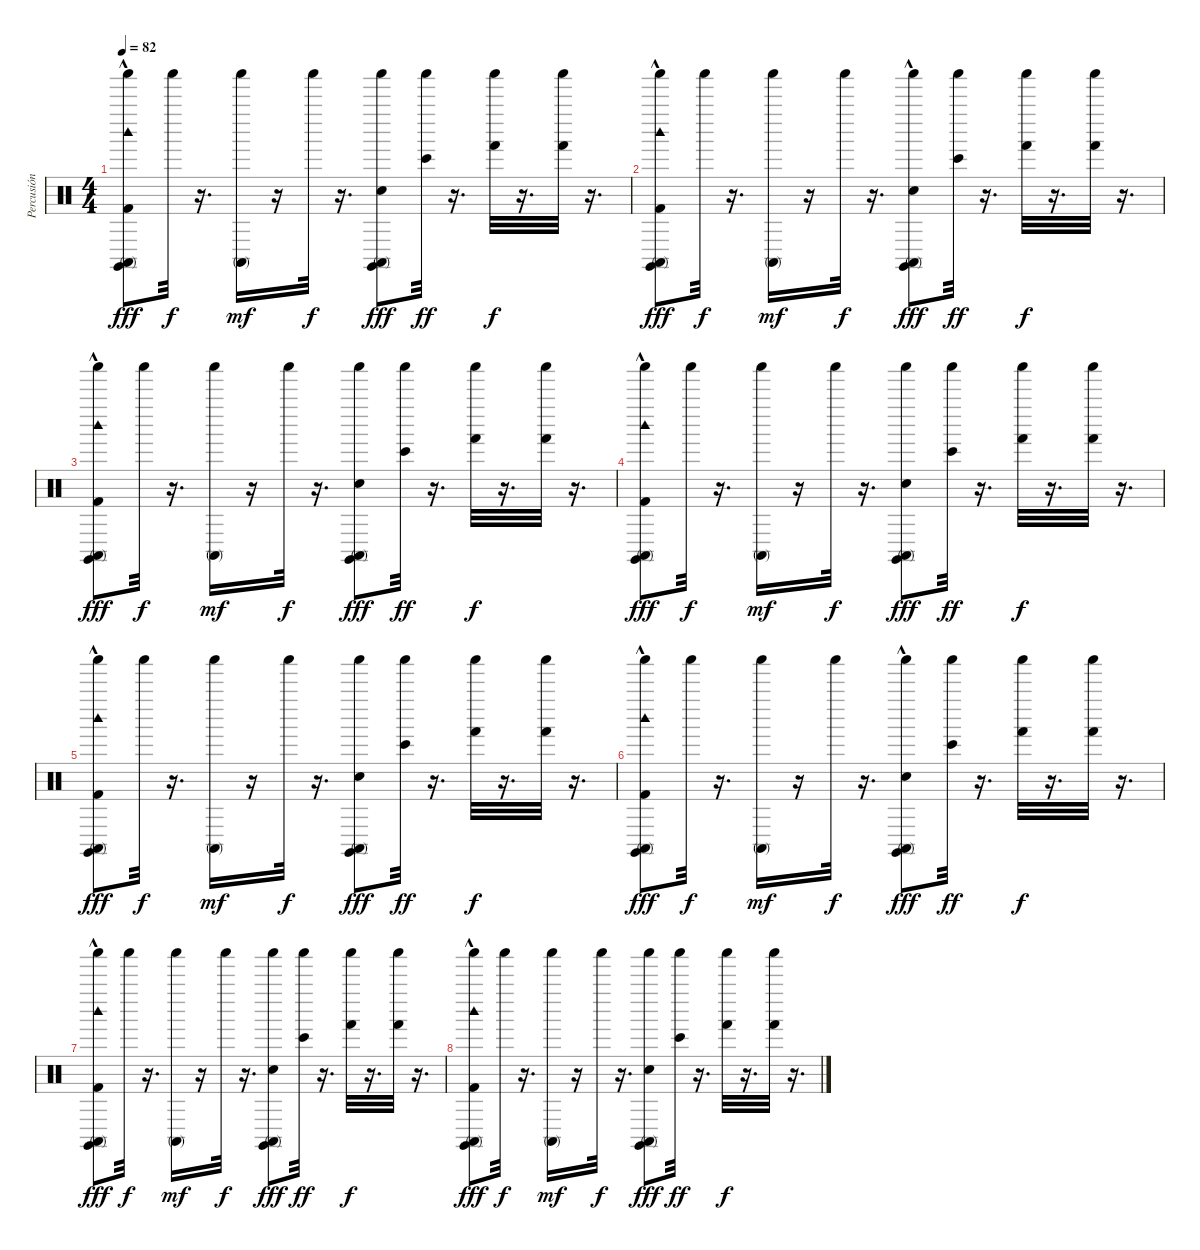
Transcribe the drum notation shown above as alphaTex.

\track ("Percusión" "Percusión") {instrument percussion}
\staff {score}
\articulation defaults
\ts (4 4)
\tempo 82
\clef neutral
\ks c
("Woodblock high (hit)" "Conga high (mute)" "Shaker (hit)" "Claves (hit)" "Kick (hit) 2"{hac}).8{dy fff} "Shaker (hit)".32{dy f} r.16{d} ("Shaker (hit)" "Conga high (mute)").16{dy mf} r.16 "Shaker (hit)".32{dy f} r.16{d} ("Claves (hit)" "Shaker (hit)" "Conga high (mute)" "Electric Snare (hit)").8{dy fff} ("Shaker (hit)" "Bongo High (hit)").32{dy ff} r.16{d} ("Shaker (hit)" "Hand (hit)").32{dy f} r.16{d} ("Shaker (hit)" "Hand (hit)").32 r.16{d} |
("Woodblock high (hit)" "Conga high (mute)" "Shaker (hit)" "Claves (hit)" "Kick (hit) 2"{hac}).8{dy fff} "Shaker (hit)".32{dy f} r.16{d} ("Shaker (hit)" "Conga high (mute)").16{dy mf} r.16 "Shaker (hit)".32{dy f} r.16{d} ("Claves (hit)" "Shaker (hit)" "Conga high (mute)" "Electric Snare (hit)"{hac}).8{dy fff} ("Shaker (hit)" "Bongo High (hit)").32{dy ff} r.16{d} ("Shaker (hit)" "Hand (hit)").32{dy f} r.16{d} ("Shaker (hit)" "Hand (hit)").32 r.16{d} |
("Woodblock high (hit)" "Conga high (mute)" "Shaker (hit)" "Claves (hit)" "Kick (hit) 2"{hac}).8{dy fff} "Shaker (hit)".32{dy f} r.16{d} ("Shaker (hit)" "Conga high (mute)").16{dy mf} r.16 "Shaker (hit)".32{dy f} r.16{d} ("Claves (hit)" "Shaker (hit)" "Conga high (mute)" "Electric Snare (hit)").8{dy fff} ("Shaker (hit)" "Bongo High (hit)").32{dy ff} r.16{d} ("Shaker (hit)" "Hand (hit)").32{dy f} r.16{d} ("Shaker (hit)" "Hand (hit)").32 r.16{d} |
("Woodblock high (hit)" "Conga high (mute)" "Shaker (hit)" "Claves (hit)" "Kick (hit) 2"{hac}).8{dy fff} "Shaker (hit)".32{dy f} r.16{d} ("Shaker (hit)" "Conga high (mute)").16{dy mf} r.16 "Shaker (hit)".32{dy f} r.16{d} ("Claves (hit)" "Shaker (hit)" "Conga high (mute)" "Electric Snare (hit)").8{dy fff} ("Shaker (hit)" "Bongo High (hit)").32{dy ff} r.16{d} ("Shaker (hit)" "Hand (hit)").32{dy f} r.16{d} ("Shaker (hit)" "Hand (hit)").32 r.16{d} |
("Woodblock high (hit)" "Conga high (mute)" "Shaker (hit)" "Claves (hit)" "Kick (hit) 2"{hac}).8{dy fff} "Shaker (hit)".32{dy f} r.16{d} ("Shaker (hit)" "Conga high (mute)").16{dy mf} r.16 "Shaker (hit)".32{dy f} r.16{d} ("Claves (hit)" "Shaker (hit)" "Conga high (mute)" "Electric Snare (hit)").8{dy fff} ("Shaker (hit)" "Bongo High (hit)").32{dy ff} r.16{d} ("Shaker (hit)" "Hand (hit)").32{dy f} r.16{d} ("Shaker (hit)" "Hand (hit)").32 r.16{d} |
("Woodblock high (hit)" "Conga high (mute)" "Shaker (hit)" "Claves (hit)" "Kick (hit) 2"{hac}).8{dy fff} "Shaker (hit)".32{dy f} r.16{d} ("Shaker (hit)" "Conga high (mute)").16{dy mf} r.16 "Shaker (hit)".32{dy f} r.16{d} ("Claves (hit)" "Shaker (hit)" "Conga high (mute)" "Electric Snare (hit)"{hac}).8{dy fff} ("Shaker (hit)" "Bongo High (hit)").32{dy ff} r.16{d} ("Shaker (hit)" "Hand (hit)").32{dy f} r.16{d} ("Shaker (hit)" "Hand (hit)").32 r.16{d} |
("Woodblock high (hit)" "Conga high (mute)" "Shaker (hit)" "Claves (hit)" "Kick (hit) 2"{hac}).8{dy fff} "Shaker (hit)".32{dy f} r.16{d} ("Shaker (hit)" "Conga high (mute)").16{dy mf} r.16 "Shaker (hit)".32{dy f} r.16{d} ("Claves (hit)" "Shaker (hit)" "Conga high (mute)" "Electric Snare (hit)").8{dy fff} ("Shaker (hit)" "Bongo High (hit)").32{dy ff} r.16{d} ("Shaker (hit)" "Hand (hit)").32{dy f} r.16{d} ("Shaker (hit)" "Hand (hit)").32 r.16{d} |
("Woodblock high (hit)" "Conga high (mute)" "Shaker (hit)" "Claves (hit)" "Kick (hit) 2"{hac}).8{dy fff} "Shaker (hit)".32{dy f} r.16{d} ("Shaker (hit)" "Conga high (mute)").16{dy mf} r.16 "Shaker (hit)".32{dy f} r.16{d} ("Claves (hit)" "Shaker (hit)" "Conga high (mute)" "Electric Snare (hit)").8{dy fff} ("Shaker (hit)" "Bongo High (hit)").32{dy ff} r.16{d} ("Shaker (hit)" "Hand (hit)").32{dy f} r.16{d} ("Shaker (hit)" "Hand (hit)").32 r.16{d}
